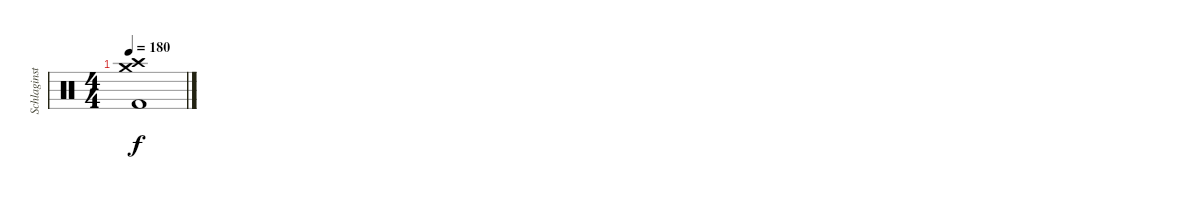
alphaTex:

\track ("Schlaginstrumente - Auswahl" "Schlaginst") {instrument percussion}
\staff {score}
\articulation defaults
\ts (4 4)
\tempo 180
\clef neutral
\ks c
("Crash high (hit)" "Crash medium (hit)" "Kick (hit) 2").1{dy f}
